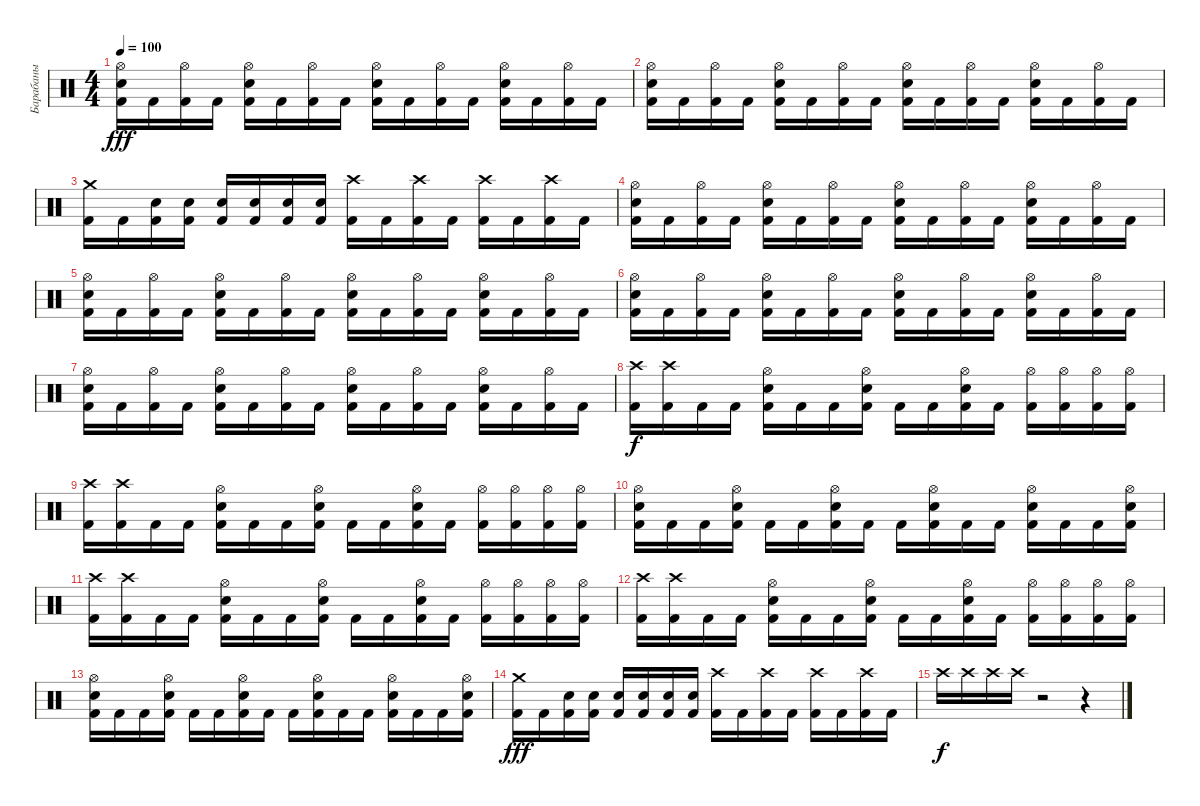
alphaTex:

\track ("Барабаны" "Барабаны") {instrument percussion}
\staff {score}
\articulation defaults
\ts (4 4)
\tempo 100
\clef neutral
\ks c
("Hi-Hat (open)" "Electric Snare (hit)" "Kick (hit) 2").16{dy fff} "Kick (hit) 2".16 ("Hi-Hat (open)" "Kick (hit) 2").16 "Kick (hit) 2".16 ("Hi-Hat (open)" "Electric Snare (hit)" "Kick (hit) 2").16 "Kick (hit) 2".16 ("Hi-Hat (open)" "Kick (hit) 2").16 "Kick (hit) 2".16 ("Hi-Hat (open)" "Electric Snare (hit)" "Kick (hit) 2").16 "Kick (hit) 2".16 ("Hi-Hat (open)" "Kick (hit) 2").16 "Kick (hit) 2".16 ("Hi-Hat (open)" "Electric Snare (hit)" "Kick (hit) 2").16 "Kick (hit) 2".16 ("Hi-Hat (open)" "Kick (hit) 2").16 "Kick (hit) 2".16 |
("Hi-Hat (open)" "Electric Snare (hit)" "Kick (hit) 2").16 "Kick (hit) 2".16 ("Hi-Hat (open)" "Kick (hit) 2").16 "Kick (hit) 2".16 ("Hi-Hat (open)" "Electric Snare (hit)" "Kick (hit) 2").16 "Kick (hit) 2".16 ("Hi-Hat (open)" "Kick (hit) 2").16 "Kick (hit) 2".16 ("Hi-Hat (open)" "Electric Snare (hit)" "Kick (hit) 2").16 "Kick (hit) 2".16 ("Hi-Hat (open)" "Kick (hit) 2").16 "Kick (hit) 2".16 ("Hi-Hat (open)" "Electric Snare (hit)" "Kick (hit) 2").16 "Kick (hit) 2".16 ("Hi-Hat (open)" "Kick (hit) 2").16 "Kick (hit) 2".16 |
("Crash medium (hit)" "Kick (hit) 2").16 "Kick (hit) 2".16 ("Electric Snare (hit)" "Kick (hit) 2").16 ("Electric Snare (hit)" "Kick (hit) 2").16 ("Electric Snare (hit)" "Kick (hit) 2").16 ("Electric Snare (hit)" "Kick (hit) 2").16 ("Electric Snare (hit)" "Kick (hit) 2").16 ("Electric Snare (hit)" "Kick (hit) 2").16 ("Crash high (hit)" "Kick (hit) 2").16 "Kick (hit) 2".16 ("Crash high (hit)" "Kick (hit) 2").16 "Kick (hit) 2".16 ("Crash high (hit)" "Kick (hit) 2").16 "Kick (hit) 2".16 ("Crash high (hit)" "Kick (hit) 2").16 "Kick (hit) 2".16 |
("Hi-Hat (open)" "Electric Snare (hit)" "Kick (hit) 2").16 "Kick (hit) 2".16 ("Hi-Hat (open)" "Kick (hit) 2").16 "Kick (hit) 2".16 ("Hi-Hat (open)" "Electric Snare (hit)" "Kick (hit) 2").16 "Kick (hit) 2".16 ("Hi-Hat (open)" "Kick (hit) 2").16 "Kick (hit) 2".16 ("Hi-Hat (open)" "Electric Snare (hit)" "Kick (hit) 2").16 "Kick (hit) 2".16 ("Hi-Hat (open)" "Kick (hit) 2").16 "Kick (hit) 2".16 ("Hi-Hat (open)" "Electric Snare (hit)" "Kick (hit) 2").16 "Kick (hit) 2".16 ("Hi-Hat (open)" "Kick (hit) 2").16 "Kick (hit) 2".16 |
("Hi-Hat (open)" "Electric Snare (hit)" "Kick (hit) 2").16 "Kick (hit) 2".16 ("Hi-Hat (open)" "Kick (hit) 2").16 "Kick (hit) 2".16 ("Hi-Hat (open)" "Electric Snare (hit)" "Kick (hit) 2").16 "Kick (hit) 2".16 ("Hi-Hat (open)" "Kick (hit) 2").16 "Kick (hit) 2".16 ("Hi-Hat (open)" "Electric Snare (hit)" "Kick (hit) 2").16 "Kick (hit) 2".16 ("Hi-Hat (open)" "Kick (hit) 2").16 "Kick (hit) 2".16 ("Hi-Hat (open)" "Electric Snare (hit)" "Kick (hit) 2").16 "Kick (hit) 2".16 ("Hi-Hat (open)" "Kick (hit) 2").16 "Kick (hit) 2".16 |
("Hi-Hat (open)" "Electric Snare (hit)" "Kick (hit) 2").16 "Kick (hit) 2".16 ("Hi-Hat (open)" "Kick (hit) 2").16 "Kick (hit) 2".16 ("Hi-Hat (open)" "Electric Snare (hit)" "Kick (hit) 2").16 "Kick (hit) 2".16 ("Hi-Hat (open)" "Kick (hit) 2").16 "Kick (hit) 2".16 ("Hi-Hat (open)" "Electric Snare (hit)" "Kick (hit) 2").16 "Kick (hit) 2".16 ("Hi-Hat (open)" "Kick (hit) 2").16 "Kick (hit) 2".16 ("Hi-Hat (open)" "Electric Snare (hit)" "Kick (hit) 2").16 "Kick (hit) 2".16 ("Hi-Hat (open)" "Kick (hit) 2").16 "Kick (hit) 2".16 |
("Hi-Hat (open)" "Electric Snare (hit)" "Kick (hit) 2").16 "Kick (hit) 2".16 ("Hi-Hat (open)" "Kick (hit) 2").16 "Kick (hit) 2".16 ("Hi-Hat (open)" "Electric Snare (hit)" "Kick (hit) 2").16 "Kick (hit) 2".16 ("Hi-Hat (open)" "Kick (hit) 2").16 "Kick (hit) 2".16 ("Hi-Hat (open)" "Electric Snare (hit)" "Kick (hit) 2").16 "Kick (hit) 2".16 ("Hi-Hat (open)" "Kick (hit) 2").16 "Kick (hit) 2".16 ("Hi-Hat (open)" "Electric Snare (hit)" "Kick (hit) 2").16 "Kick (hit) 2".16 ("Hi-Hat (open)" "Kick (hit) 2").16 "Kick (hit) 2".16 |
("Crash high (hit)" "Kick (hit) 2").16{dy f} ("Crash high (hit)" "Kick (hit) 2").16 "Kick (hit) 2".16 "Kick (hit) 2".16 ("Hi-Hat (open)" "Electric Snare (hit)" "Kick (hit) 2").16 "Kick (hit) 2".16 "Kick (hit) 2".16 ("Hi-Hat (open)" "Electric Snare (hit)" "Kick (hit) 2").16 "Kick (hit) 2".16 "Kick (hit) 2".16 ("Hi-Hat (open)" "Electric Snare (hit)" "Kick (hit) 2").16 "Kick (hit) 2".16 ("Hi-Hat (open)" "Kick (hit) 2").16 ("Hi-Hat (open)" "Kick (hit) 2").16 ("Hi-Hat (open)" "Kick (hit) 2").16 ("Hi-Hat (open)" "Kick (hit) 2").16 |
("Crash high (hit)" "Kick (hit) 2").16 ("Crash high (hit)" "Kick (hit) 2").16 "Kick (hit) 2".16 "Kick (hit) 2".16 ("Hi-Hat (open)" "Electric Snare (hit)" "Kick (hit) 2").16 "Kick (hit) 2".16 "Kick (hit) 2".16 ("Hi-Hat (open)" "Electric Snare (hit)" "Kick (hit) 2").16 "Kick (hit) 2".16 "Kick (hit) 2".16 ("Hi-Hat (open)" "Electric Snare (hit)" "Kick (hit) 2").16 "Kick (hit) 2".16 ("Hi-Hat (open)" "Kick (hit) 2").16 ("Hi-Hat (open)" "Kick (hit) 2").16 ("Hi-Hat (open)" "Kick (hit) 2").16 ("Hi-Hat (open)" "Kick (hit) 2").16 |
("Hi-Hat (open)" "Electric Snare (hit)" "Kick (hit) 2").16 "Kick (hit) 2".16 "Kick (hit) 2".16 ("Hi-Hat (open)" "Electric Snare (hit)" "Kick (hit) 2").16 "Kick (hit) 2".16 "Kick (hit) 2".16 ("Hi-Hat (open)" "Electric Snare (hit)" "Kick (hit) 2").16 "Kick (hit) 2".16 "Kick (hit) 2".16 ("Hi-Hat (open)" "Electric Snare (hit)" "Kick (hit) 2").16 "Kick (hit) 2".16 "Kick (hit) 2".16 ("Hi-Hat (open)" "Electric Snare (hit)" "Kick (hit) 2").16 "Kick (hit) 2".16 "Kick (hit) 2".16 ("Hi-Hat (open)" "Electric Snare (hit)" "Kick (hit) 2").16 |
("Crash high (hit)" "Kick (hit) 2").16 ("Crash high (hit)" "Kick (hit) 2").16 "Kick (hit) 2".16 "Kick (hit) 2".16 ("Hi-Hat (open)" "Electric Snare (hit)" "Kick (hit) 2").16 "Kick (hit) 2".16 "Kick (hit) 2".16 ("Hi-Hat (open)" "Electric Snare (hit)" "Kick (hit) 2").16 "Kick (hit) 2".16 "Kick (hit) 2".16 ("Hi-Hat (open)" "Electric Snare (hit)" "Kick (hit) 2").16 "Kick (hit) 2".16 ("Hi-Hat (open)" "Kick (hit) 2").16 ("Hi-Hat (open)" "Kick (hit) 2").16 ("Hi-Hat (open)" "Kick (hit) 2").16 ("Hi-Hat (open)" "Kick (hit) 2").16 |
("Crash high (hit)" "Kick (hit) 2").16 ("Crash high (hit)" "Kick (hit) 2").16 "Kick (hit) 2".16 "Kick (hit) 2".16 ("Hi-Hat (open)" "Electric Snare (hit)" "Kick (hit) 2").16 "Kick (hit) 2".16 "Kick (hit) 2".16 ("Hi-Hat (open)" "Electric Snare (hit)" "Kick (hit) 2").16 "Kick (hit) 2".16 "Kick (hit) 2".16 ("Hi-Hat (open)" "Electric Snare (hit)" "Kick (hit) 2").16 "Kick (hit) 2".16 ("Hi-Hat (open)" "Kick (hit) 2").16 ("Hi-Hat (open)" "Kick (hit) 2").16 ("Hi-Hat (open)" "Kick (hit) 2").16 ("Hi-Hat (open)" "Kick (hit) 2").16 |
("Hi-Hat (open)" "Electric Snare (hit)" "Kick (hit) 2").16 "Kick (hit) 2".16 "Kick (hit) 2".16 ("Hi-Hat (open)" "Electric Snare (hit)" "Kick (hit) 2").16 "Kick (hit) 2".16 "Kick (hit) 2".16 ("Hi-Hat (open)" "Electric Snare (hit)" "Kick (hit) 2").16 "Kick (hit) 2".16 "Kick (hit) 2".16 ("Hi-Hat (open)" "Electric Snare (hit)" "Kick (hit) 2").16 "Kick (hit) 2".16 "Kick (hit) 2".16 ("Hi-Hat (open)" "Electric Snare (hit)" "Kick (hit) 2").16 "Kick (hit) 2".16 "Kick (hit) 2".16 ("Hi-Hat (open)" "Electric Snare (hit)" "Kick (hit) 2").16 |
("Crash medium (hit)" "Kick (hit) 2").16{dy fff} "Kick (hit) 2".16 ("Electric Snare (hit)" "Kick (hit) 2").16 ("Electric Snare (hit)" "Kick (hit) 2").16 ("Electric Snare (hit)" "Kick (hit) 2").16 ("Electric Snare (hit)" "Kick (hit) 2").16 ("Electric Snare (hit)" "Kick (hit) 2").16 ("Electric Snare (hit)" "Kick (hit) 2").16 ("Crash high (hit)" "Kick (hit) 2").16 "Kick (hit) 2".16 ("Crash high (hit)" "Kick (hit) 2").16 "Kick (hit) 2".16 ("Crash high (hit)" "Kick (hit) 2").16 "Kick (hit) 2".16 ("Crash high (hit)" "Kick (hit) 2").16 "Kick (hit) 2".16 |
"Crash high (hit)".16{dy f} "Crash high (hit)".16 "Crash high (hit)".16 "Crash high (hit)".16 r.2 r.4
